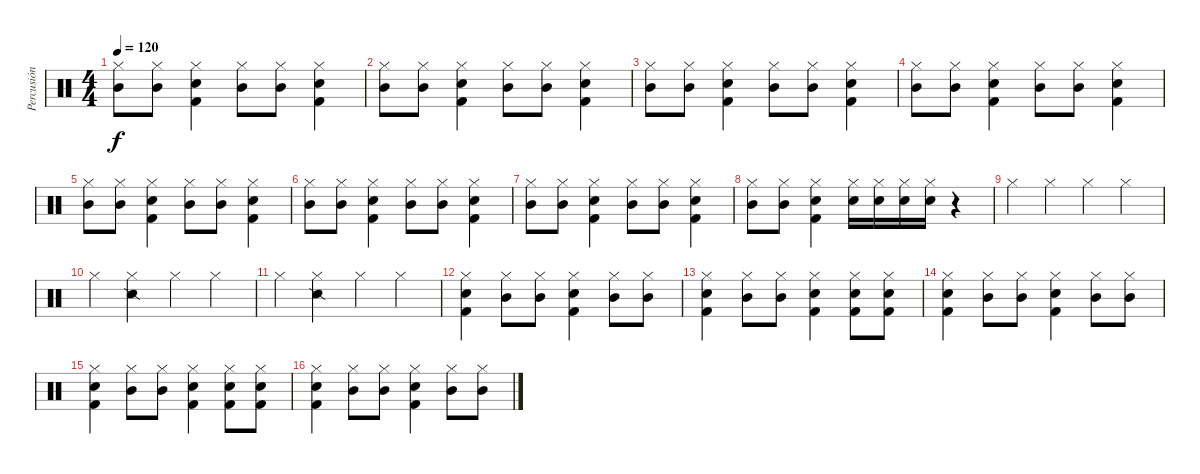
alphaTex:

\track ("Percusión" "Percusión") {instrument percussion}
\staff {score}
\articulation defaults
\ts (4 4)
\tempo 120
\clef neutral
\ks c
("Hi-Hat (closed)" "Mid Tom (hit)").8{dy f} ("Hi-Hat (closed)" "Mid Tom (hit)").8 ("Hi-Hat (closed)" "Snare (hit) 2" "Kick (hit) 2").4 ("Hi-Hat (closed)" "Mid Tom (hit)").8 ("Hi-Hat (closed)" "Mid Tom (hit)").8 ("Hi-Hat (closed)" "Snare (hit) 2" "Kick (hit) 2").4 |
("Hi-Hat (closed)" "Mid Tom (hit)").8 ("Hi-Hat (closed)" "Mid Tom (hit)").8 ("Hi-Hat (closed)" "Snare (hit) 2" "Kick (hit) 2").4 ("Hi-Hat (closed)" "Mid Tom (hit)").8 ("Hi-Hat (closed)" "Mid Tom (hit)").8 ("Hi-Hat (closed)" "Snare (hit) 2" "Kick (hit) 2").4 |
("Hi-Hat (closed)" "Mid Tom (hit)").8 ("Hi-Hat (closed)" "Mid Tom (hit)").8 ("Hi-Hat (closed)" "Snare (hit) 2" "Kick (hit) 2").4 ("Hi-Hat (closed)" "Mid Tom (hit)").8 ("Hi-Hat (closed)" "Mid Tom (hit)").8 ("Hi-Hat (closed)" "Snare (hit) 2" "Kick (hit) 2").4 |
("Hi-Hat (closed)" "Mid Tom (hit)").8 ("Hi-Hat (closed)" "Mid Tom (hit)").8 ("Hi-Hat (closed)" "Snare (hit) 2" "Kick (hit) 2").4 ("Hi-Hat (closed)" "Mid Tom (hit)").8 ("Hi-Hat (closed)" "Mid Tom (hit)").8 ("Hi-Hat (closed)" "Snare (hit) 2" "Kick (hit) 2").4 |
("Hi-Hat (closed)" "Mid Tom (hit)").8 ("Hi-Hat (closed)" "Mid Tom (hit)").8 ("Hi-Hat (closed)" "Snare (hit) 2" "Kick (hit) 2").4 ("Hi-Hat (closed)" "Mid Tom (hit)").8 ("Hi-Hat (closed)" "Mid Tom (hit)").8 ("Hi-Hat (closed)" "Snare (hit) 2" "Kick (hit) 2").4 |
("Hi-Hat (closed)" "Mid Tom (hit)").8 ("Hi-Hat (closed)" "Mid Tom (hit)").8 ("Hi-Hat (closed)" "Snare (hit) 2" "Kick (hit) 2").4 ("Hi-Hat (closed)" "Mid Tom (hit)").8 ("Hi-Hat (closed)" "Mid Tom (hit)").8 ("Hi-Hat (closed)" "Snare (hit) 2" "Kick (hit) 2").4 |
("Hi-Hat (closed)" "Mid Tom (hit)").8 ("Hi-Hat (closed)" "Mid Tom (hit)").8 ("Hi-Hat (closed)" "Snare (hit) 2" "Kick (hit) 2").4 ("Hi-Hat (closed)" "Mid Tom (hit)").8 ("Hi-Hat (closed)" "Mid Tom (hit)").8 ("Hi-Hat (closed)" "Snare (hit) 2" "Kick (hit) 2").4 |
("Hi-Hat (closed)" "Mid Tom (hit)").8{volume 10} ("Hi-Hat (closed)" "Mid Tom (hit)").8 ("Hi-Hat (closed)" "Snare (hit) 2" "Kick (hit) 2").4 ("Hi-Hat (closed)" "Snare (hit) 2").16 ("Hi-Hat (closed)" "Snare (hit) 2").16 ("Hi-Hat (closed)" "Snare (hit) 2").16 ("Hi-Hat (closed)" "Snare (hit) 2").16 r.4 |
"Hi-Hat (closed)".4 "Hi-Hat (closed)".4 "Hi-Hat (closed)".4 "Hi-Hat (closed)".4 |
"Hi-Hat (closed)".4 ("Hi-Hat (closed)" "Snare (side stick) 2").4 "Hi-Hat (closed)".4 "Hi-Hat (closed)".4 |
"Hi-Hat (closed)".4 ("Hi-Hat (closed)" "Snare (side stick) 2").4 "Hi-Hat (closed)".4 "Hi-Hat (closed)".4 |
("Hi-Hat (closed)" "Snare (hit) 2" "Kick (hit) 2").4 ("Hi-Hat (closed)" "Mid Tom (hit)").8 ("Hi-Hat (closed)" "Mid Tom (hit)").8 ("Hi-Hat (closed)" "Snare (hit) 2" "Kick (hit) 2").4 ("Hi-Hat (closed)" "Mid Tom (hit)").8 ("Hi-Hat (closed)" "Mid Tom (hit)").8 |
("Hi-Hat (closed)" "Snare (hit) 2" "Kick (hit) 2").4 ("Hi-Hat (closed)" "Mid Tom (hit)").8 ("Hi-Hat (closed)" "Mid Tom (hit)").8 ("Hi-Hat (closed)" "Snare (hit) 2" "Kick (hit) 2").4 ("Hi-Hat (closed)" "Snare (hit) 2" "Kick (hit) 2").8 ("Hi-Hat (closed)" "Snare (hit) 2" "Kick (hit) 2").8 |
("Hi-Hat (closed)" "Snare (hit) 2" "Kick (hit) 2").4 ("Hi-Hat (closed)" "Mid Tom (hit)").8 ("Hi-Hat (closed)" "Mid Tom (hit)").8 ("Hi-Hat (closed)" "Snare (hit) 2" "Kick (hit) 2").4 ("Hi-Hat (closed)" "Mid Tom (hit)").8 ("Hi-Hat (closed)" "Mid Tom (hit)").8 |
("Hi-Hat (closed)" "Snare (hit) 2" "Kick (hit) 2").4 ("Hi-Hat (closed)" "Mid Tom (hit)").8 ("Hi-Hat (closed)" "Mid Tom (hit)").8 ("Hi-Hat (closed)" "Snare (hit) 2" "Kick (hit) 2").4 ("Hi-Hat (closed)" "Snare (hit) 2" "Kick (hit) 2").8 ("Hi-Hat (closed)" "Snare (hit) 2" "Kick (hit) 2").8 |
("Hi-Hat (closed)" "Snare (hit) 2" "Kick (hit) 2").4 ("Hi-Hat (closed)" "Mid Tom (hit)").8 ("Hi-Hat (closed)" "Mid Tom (hit)").8 ("Hi-Hat (closed)" "Snare (hit) 2" "Kick (hit) 2").4 ("Hi-Hat (closed)" "Mid Tom (hit)").8 ("Hi-Hat (closed)" "Mid Tom (hit)").8
